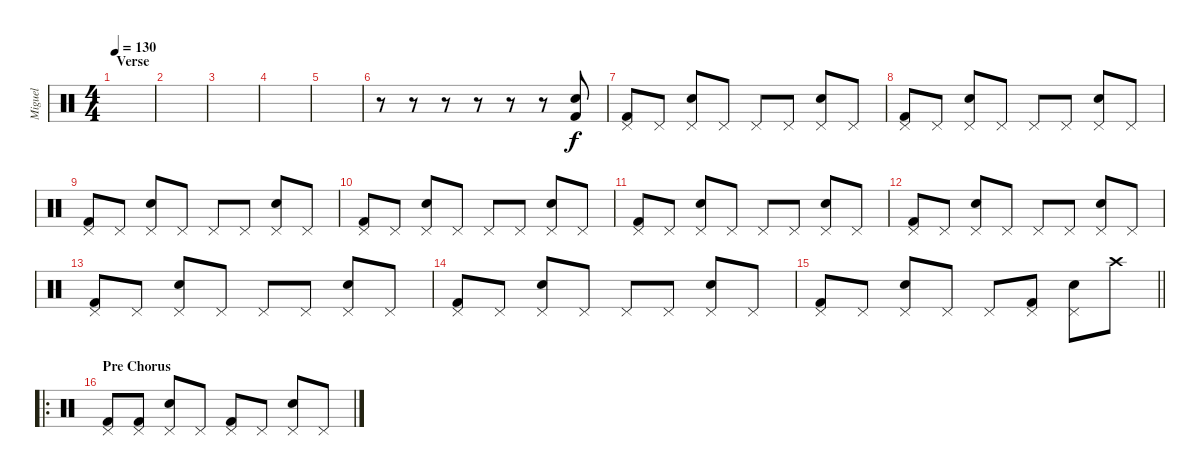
\track ("Miguel" "Miguel") {instrument percussion}
\staff {score}
\articulation defaults
\ts (4 4)
\section ("" "Verse")
\tempo 130
\clef neutral
\ks c
|
|
|
|
|
r.8 r.8 r.8 r.8 r.8 r.8 ("Snare (hit) 2" "Kick (hit) 2").8 |
("Pedal Hi-Hat (hit)" "Kick (hit) 2").8 "Pedal Hi-Hat (hit)".8 ("Pedal Hi-Hat (hit)" "Snare (hit) 2").8 "Pedal Hi-Hat (hit)".8 "Pedal Hi-Hat (hit)".8 "Pedal Hi-Hat (hit)".8 ("Pedal Hi-Hat (hit)" "Snare (hit) 2").8 "Pedal Hi-Hat (hit)".8 |
("Pedal Hi-Hat (hit)" "Kick (hit) 2").8 "Pedal Hi-Hat (hit)".8 ("Pedal Hi-Hat (hit)" "Snare (hit) 2").8 "Pedal Hi-Hat (hit)".8 "Pedal Hi-Hat (hit)".8 "Pedal Hi-Hat (hit)".8 ("Pedal Hi-Hat (hit)" "Snare (hit) 2").8 "Pedal Hi-Hat (hit)".8 |
("Pedal Hi-Hat (hit)" "Kick (hit) 2").8 "Pedal Hi-Hat (hit)".8 ("Pedal Hi-Hat (hit)" "Snare (hit) 2").8 "Pedal Hi-Hat (hit)".8 "Pedal Hi-Hat (hit)".8 "Pedal Hi-Hat (hit)".8 ("Pedal Hi-Hat (hit)" "Snare (hit) 2").8 "Pedal Hi-Hat (hit)".8 |
("Pedal Hi-Hat (hit)" "Kick (hit) 2").8 "Pedal Hi-Hat (hit)".8 ("Pedal Hi-Hat (hit)" "Snare (hit) 2").8 "Pedal Hi-Hat (hit)".8 "Pedal Hi-Hat (hit)".8 "Pedal Hi-Hat (hit)".8 ("Pedal Hi-Hat (hit)" "Snare (hit) 2").8 "Pedal Hi-Hat (hit)".8 |
("Pedal Hi-Hat (hit)" "Kick (hit) 2").8 "Pedal Hi-Hat (hit)".8 ("Pedal Hi-Hat (hit)" "Snare (hit) 2").8 "Pedal Hi-Hat (hit)".8 "Pedal Hi-Hat (hit)".8 "Pedal Hi-Hat (hit)".8 ("Pedal Hi-Hat (hit)" "Snare (hit) 2").8 "Pedal Hi-Hat (hit)".8 |
("Pedal Hi-Hat (hit)" "Kick (hit) 2").8 "Pedal Hi-Hat (hit)".8 ("Pedal Hi-Hat (hit)" "Snare (hit) 2").8 "Pedal Hi-Hat (hit)".8 "Pedal Hi-Hat (hit)".8 "Pedal Hi-Hat (hit)".8 ("Pedal Hi-Hat (hit)" "Snare (hit) 2").8 "Pedal Hi-Hat (hit)".8 |
("Pedal Hi-Hat (hit)" "Kick (hit) 2").8 "Pedal Hi-Hat (hit)".8 ("Pedal Hi-Hat (hit)" "Snare (hit) 2").8 "Pedal Hi-Hat (hit)".8 "Pedal Hi-Hat (hit)".8 "Pedal Hi-Hat (hit)".8 ("Pedal Hi-Hat (hit)" "Snare (hit) 2").8 "Pedal Hi-Hat (hit)".8 |
("Pedal Hi-Hat (hit)" "Kick (hit) 2").8 "Pedal Hi-Hat (hit)".8 ("Pedal Hi-Hat (hit)" "Snare (hit) 2").8 "Pedal Hi-Hat (hit)".8 "Pedal Hi-Hat (hit)".8 "Pedal Hi-Hat (hit)".8 ("Pedal Hi-Hat (hit)" "Snare (hit) 2").8 "Pedal Hi-Hat (hit)".8 |
\barLineRight lightlight
("Pedal Hi-Hat (hit)" "Kick (hit) 2").8 "Pedal Hi-Hat (hit)".8 ("Pedal Hi-Hat (hit)" "Snare (hit) 2").8 "Pedal Hi-Hat (hit)".8 "Pedal Hi-Hat (hit)".8 ("Pedal Hi-Hat (hit)" "Kick (hit) 2").8 ("Pedal Hi-Hat (hit)" "Snare (hit) 2").8 "Crash high (hit)".8 |
\ro
\section ("" "Pre Chorus")
("Pedal Hi-Hat (hit)" "Kick (hit) 2").8 ("Pedal Hi-Hat (hit)" "Kick (hit) 2").8 ("Pedal Hi-Hat (hit)" "Snare (hit) 2").8 "Pedal Hi-Hat (hit)".8 ("Pedal Hi-Hat (hit)" "Kick (hit) 2").8 "Pedal Hi-Hat (hit)".8 ("Pedal Hi-Hat (hit)" "Snare (hit) 2").8 "Pedal Hi-Hat (hit)".8
